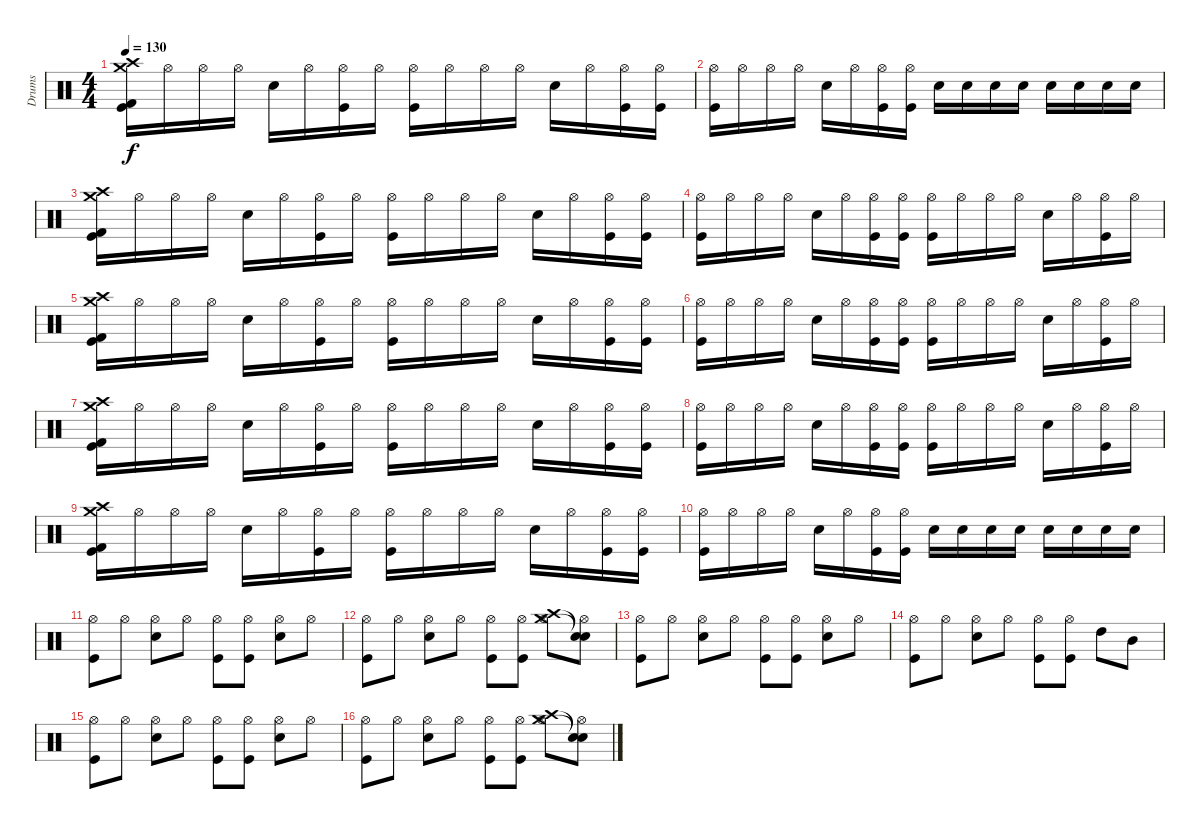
\track ("Drums" "Drums") {instrument percussion}
\staff {score}
\articulation defaults
\ts (4 4)
\tempo 130
\clef neutral
\ks c
("Crash medium (hit)" "Crash high (hit)" "Kick (hit) 2" "Kick (hit)").16{dy f} "Hi-Hat (open)".16 "Hi-Hat (open)".16 "Hi-Hat (open)".16 "Electric Snare (hit)".16 "Hi-Hat (open)".16 ("Hi-Hat (open)" "Kick (hit)").16 "Hi-Hat (open)".16 ("Hi-Hat (open)" "Kick (hit)").16 "Hi-Hat (open)".16 "Hi-Hat (open)".16 "Hi-Hat (open)".16 "Electric Snare (hit)".16 "Hi-Hat (open)".16 ("Hi-Hat (open)" "Kick (hit)").16 ("Hi-Hat (open)" "Kick (hit)").16 |
("Hi-Hat (open)" "Kick (hit)").16 "Hi-Hat (open)".16 "Hi-Hat (open)".16 "Hi-Hat (open)".16 "Electric Snare (hit)".16 "Hi-Hat (open)".16 ("Hi-Hat (open)" "Kick (hit)").16 ("Hi-Hat (open)" "Kick (hit)").16 "Electric Snare (hit)".16 "Electric Snare (hit)".16 "Electric Snare (hit)".16 "Electric Snare (hit)".16 "Electric Snare (hit)".16 "Electric Snare (hit)".16 "Electric Snare (hit)".16 "Electric Snare (hit)".16 |
("Crash medium (hit)" "Crash high (hit)" "Kick (hit) 2" "Kick (hit)").16 "Hi-Hat (open)".16 "Hi-Hat (open)".16 "Hi-Hat (open)".16 "Electric Snare (hit)".16 "Hi-Hat (open)".16 ("Hi-Hat (open)" "Kick (hit)").16 "Hi-Hat (open)".16 ("Hi-Hat (open)" "Kick (hit)").16 "Hi-Hat (open)".16 "Hi-Hat (open)".16 "Hi-Hat (open)".16 "Electric Snare (hit)".16 "Hi-Hat (open)".16 ("Hi-Hat (open)" "Kick (hit)").16 ("Hi-Hat (open)" "Kick (hit)").16 |
("Hi-Hat (open)" "Kick (hit)").16 "Hi-Hat (open)".16 "Hi-Hat (open)".16 "Hi-Hat (open)".16 "Electric Snare (hit)".16 "Hi-Hat (open)".16 ("Hi-Hat (open)" "Kick (hit)").16 ("Hi-Hat (open)" "Kick (hit)").16 ("Hi-Hat (open)" "Kick (hit)").16 "Hi-Hat (open)".16 "Hi-Hat (open)".16 "Hi-Hat (open)".16 "Electric Snare (hit)".16 "Hi-Hat (open)".16 ("Hi-Hat (open)" "Kick (hit)").16 "Hi-Hat (open)".16 |
("Crash medium (hit)" "Crash high (hit)" "Kick (hit) 2" "Kick (hit)").16 "Hi-Hat (open)".16 "Hi-Hat (open)".16 "Hi-Hat (open)".16 "Electric Snare (hit)".16 "Hi-Hat (open)".16 ("Hi-Hat (open)" "Kick (hit)").16 "Hi-Hat (open)".16 ("Hi-Hat (open)" "Kick (hit)").16 "Hi-Hat (open)".16 "Hi-Hat (open)".16 "Hi-Hat (open)".16 "Electric Snare (hit)".16 "Hi-Hat (open)".16 ("Hi-Hat (open)" "Kick (hit)").16 ("Hi-Hat (open)" "Kick (hit)").16 |
("Hi-Hat (open)" "Kick (hit)").16 "Hi-Hat (open)".16 "Hi-Hat (open)".16 "Hi-Hat (open)".16 "Electric Snare (hit)".16 "Hi-Hat (open)".16 ("Hi-Hat (open)" "Kick (hit)").16 ("Hi-Hat (open)" "Kick (hit)").16 ("Hi-Hat (open)" "Kick (hit)").16 "Hi-Hat (open)".16 "Hi-Hat (open)".16 "Hi-Hat (open)".16 "Electric Snare (hit)".16 "Hi-Hat (open)".16 ("Hi-Hat (open)" "Kick (hit)").16 "Hi-Hat (open)".16 |
("Crash medium (hit)" "Crash high (hit)" "Kick (hit) 2" "Kick (hit)").16 "Hi-Hat (open)".16 "Hi-Hat (open)".16 "Hi-Hat (open)".16 "Electric Snare (hit)".16 "Hi-Hat (open)".16 ("Hi-Hat (open)" "Kick (hit)").16 "Hi-Hat (open)".16 ("Hi-Hat (open)" "Kick (hit)").16 "Hi-Hat (open)".16 "Hi-Hat (open)".16 "Hi-Hat (open)".16 "Electric Snare (hit)".16 "Hi-Hat (open)".16 ("Hi-Hat (open)" "Kick (hit)").16 ("Hi-Hat (open)" "Kick (hit)").16 |
("Hi-Hat (open)" "Kick (hit)").16 "Hi-Hat (open)".16 "Hi-Hat (open)".16 "Hi-Hat (open)".16 "Electric Snare (hit)".16 "Hi-Hat (open)".16 ("Hi-Hat (open)" "Kick (hit)").16 ("Hi-Hat (open)" "Kick (hit)").16 ("Hi-Hat (open)" "Kick (hit)").16 "Hi-Hat (open)".16 "Hi-Hat (open)".16 "Hi-Hat (open)".16 "Electric Snare (hit)".16 "Hi-Hat (open)".16 ("Hi-Hat (open)" "Kick (hit)").16 "Hi-Hat (open)".16 |
("Crash medium (hit)" "Crash high (hit)" "Kick (hit) 2" "Kick (hit)").16 "Hi-Hat (open)".16 "Hi-Hat (open)".16 "Hi-Hat (open)".16 "Electric Snare (hit)".16 "Hi-Hat (open)".16 ("Hi-Hat (open)" "Kick (hit)").16 "Hi-Hat (open)".16 ("Hi-Hat (open)" "Kick (hit)").16 "Hi-Hat (open)".16 "Hi-Hat (open)".16 "Hi-Hat (open)".16 "Electric Snare (hit)".16 "Hi-Hat (open)".16 ("Hi-Hat (open)" "Kick (hit)").16 ("Hi-Hat (open)" "Kick (hit)").16 |
("Hi-Hat (open)" "Kick (hit)").16 "Hi-Hat (open)".16 "Hi-Hat (open)".16 "Hi-Hat (open)".16 "Electric Snare (hit)".16 "Hi-Hat (open)".16 ("Hi-Hat (open)" "Kick (hit)").16 ("Hi-Hat (open)" "Kick (hit)").16 "Electric Snare (hit)".16 "Electric Snare (hit)".16 "Electric Snare (hit)".16 "Electric Snare (hit)".16 "Electric Snare (hit)".16 "Electric Snare (hit)".16 "Electric Snare (hit)".16 "Electric Snare (hit)".16 |
("Kick (hit)" "Hi-Hat (open)").8 "Hi-Hat (open)".8 ("Electric Snare (hit)" "Hi-Hat (open)").8 "Hi-Hat (open)".8 ("Kick (hit)" "Hi-Hat (open)").8 ("Kick (hit)" "Hi-Hat (open)").8 ("Electric Snare (hit)" "Hi-Hat (open)").8 "Hi-Hat (open)".8 |
("Kick (hit)" "Hi-Hat (open)").8 "Hi-Hat (open)".8 ("Electric Snare (hit)" "Hi-Hat (open)").8 "Hi-Hat (open)".8 ("Kick (hit)" "Hi-Hat (open)").8 ("Kick (hit)" "Hi-Hat (open)").8 ("Crash medium (hit)" "Crash high (hit)" "Hi-Hat (open)").8 ("Snare (hit)"{t} "Snare (hit)"{t} "Hi-Hat (open)").8 |
("Kick (hit)" "Hi-Hat (open)").8 "Hi-Hat (open)".8 ("Electric Snare (hit)" "Hi-Hat (open)").8 "Hi-Hat (open)".8 ("Kick (hit)" "Hi-Hat (open)").8 ("Kick (hit)" "Hi-Hat (open)").8 ("Electric Snare (hit)" "Hi-Hat (open)").8 "Hi-Hat (open)".8 |
("Kick (hit)" "Hi-Hat (open)").8 "Hi-Hat (open)".8 ("Electric Snare (hit)" "Hi-Hat (open)").8 "Hi-Hat (open)".8 ("Kick (hit)" "Hi-Hat (open)").8 ("Kick (hit)" "Hi-Hat (open)").8 "High Tom (hit)".8 "Mid Tom (hit)".8 |
("Kick (hit)" "Hi-Hat (open)").8 "Hi-Hat (open)".8 ("Electric Snare (hit)" "Hi-Hat (open)").8 "Hi-Hat (open)".8 ("Kick (hit)" "Hi-Hat (open)").8 ("Kick (hit)" "Hi-Hat (open)").8 ("Electric Snare (hit)" "Hi-Hat (open)").8 "Hi-Hat (open)".8 |
("Kick (hit)" "Hi-Hat (open)").8 "Hi-Hat (open)".8 ("Electric Snare (hit)" "Hi-Hat (open)").8 "Hi-Hat (open)".8 ("Kick (hit)" "Hi-Hat (open)").8 ("Kick (hit)" "Hi-Hat (open)").8 ("Crash medium (hit)" "Crash high (hit)" "Hi-Hat (open)").8 ("Snare (hit)"{t} "Snare (hit)"{t} "Hi-Hat (open)").8
